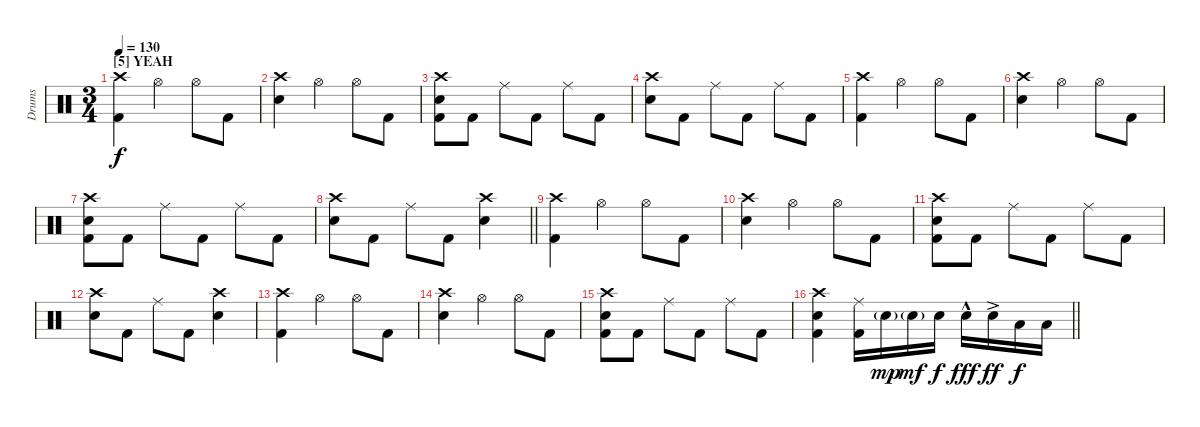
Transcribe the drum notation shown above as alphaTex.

\track ("Drums" "Drums") {instrument percussion}
\staff {score}
\articulation defaults
\ts (3 4)
\section ("" "[5] YEAH")
\tempo 130
\clef neutral
\ks c
("Crash high (hit)" "Kick (hit) 2").4{dy f} "Hi-Hat (open)".4 "Hi-Hat (open)".8 "Kick (hit) 2".8 |
("Crash high (hit)" "Electric Snare (hit)").4 "Hi-Hat (open)".4 "Hi-Hat (open)".8 "Kick (hit) 2".8 |
("Crash high (hit)" "Electric Snare (hit)" "Kick (hit) 2").8 "Kick (hit) 2".8 "Ride (middle)".8 "Kick (hit) 2".8 "Ride (middle)".8 "Kick (hit) 2".8 |
("Crash high (hit)" "Electric Snare (hit)").8 "Kick (hit) 2".8 "Ride (middle)".8 "Kick (hit) 2".8 "Ride (middle)".8 "Kick (hit) 2".8 |
("Crash high (hit)" "Kick (hit) 2").4 "Hi-Hat (open)".4 "Hi-Hat (open)".8 "Kick (hit) 2".8 |
("Crash high (hit)" "Electric Snare (hit)").4 "Hi-Hat (open)".4 "Hi-Hat (open)".8 "Kick (hit) 2".8 |
("Crash high (hit)" "Electric Snare (hit)" "Kick (hit) 2").8 "Kick (hit) 2".8 "Ride (middle)".8 "Kick (hit) 2".8 "Ride (middle)".8 "Kick (hit) 2".8 |
\barLineRight lightlight
("Crash high (hit)" "Electric Snare (hit)").8 "Kick (hit) 2".8 "Ride (middle)".8 "Kick (hit) 2".8 ("Crash high (hit)" "Electric Snare (hit)").4 |
\section ("" "")
("Crash high (hit)" "Kick (hit) 2").4 "Hi-Hat (open)".4 "Hi-Hat (open)".8 "Kick (hit) 2".8 |
("Crash high (hit)" "Electric Snare (hit)").4 "Hi-Hat (open)".4 "Hi-Hat (open)".8 "Kick (hit) 2".8 |
("Crash high (hit)" "Electric Snare (hit)" "Kick (hit) 2").8 "Kick (hit) 2".8 "Ride (middle)".8 "Kick (hit) 2".8 "Ride (middle)".8 "Kick (hit) 2".8 |
("Crash high (hit)" "Electric Snare (hit)").8 "Kick (hit) 2".8 "Ride (middle)".8 "Kick (hit) 2".8 ("Crash high (hit)" "Electric Snare (hit)").4 |
("Crash high (hit)" "Kick (hit) 2").4 "Hi-Hat (open)".4 "Hi-Hat (open)".8 "Kick (hit) 2".8 |
("Crash high (hit)" "Electric Snare (hit)").4 "Hi-Hat (open)".4 "Hi-Hat (open)".8 "Kick (hit) 2".8 |
("Crash high (hit)" "Electric Snare (hit)" "Kick (hit) 2").8 "Kick (hit) 2".8 "Ride (middle)".8 "Kick (hit) 2".8 "Ride (middle)".8 "Kick (hit) 2".8 |
\barLineRight lightlight
("Crash high (hit)" "Electric Snare (hit)" "Kick (hit) 2").4 ("Ride (middle)" "Kick (hit) 2").16 "Electric Snare (hit)"{g}.16{dy mp} "Electric Snare (hit)"{g}.16{dy mf} "Electric Snare (hit)".16{dy f} "Electric Snare (hit)"{hac}.16{dy fff} "Electric Snare (hit)"{ac}.16{dy ff} "Low Tom (hit)".16{dy f} "Low Tom (hit)".16
